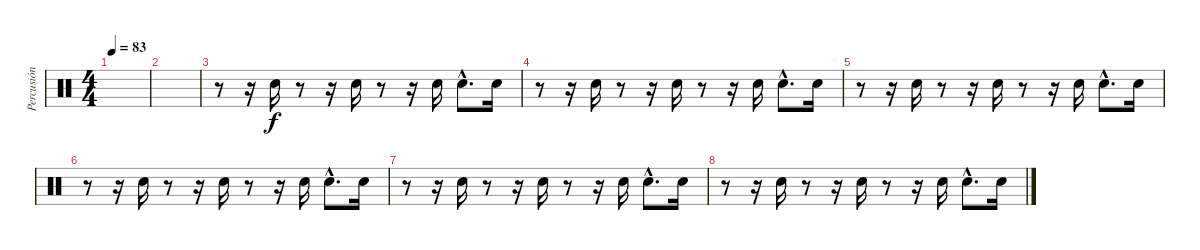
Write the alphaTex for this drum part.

\track ("Percusión" "Percusión") {instrument percussion}
\staff {score}
\articulation defaults
\ts (4 4)
\tempo 83
\clef neutral
\ks c
|
|
r.8 r.16 "Hand Clap (hit)".16 r.8 r.16 "Hand Clap (hit)".16 r.8 r.16 "Hand Clap (hit)".16 "Hand Clap (hit)"{hac}.8{d} "Hand Clap (hit)".16 |
r.8 r.16 "Hand Clap (hit)".16 r.8 r.16 "Hand Clap (hit)".16 r.8 r.16 "Hand Clap (hit)".16 "Hand Clap (hit)"{hac}.8{d} "Hand Clap (hit)".16 |
r.8 r.16 "Hand Clap (hit)".16 r.8 r.16 "Hand Clap (hit)".16 r.8 r.16 "Hand Clap (hit)".16 "Hand Clap (hit)"{hac}.8{d} "Hand Clap (hit)".16 |
r.8 r.16 "Hand Clap (hit)".16 r.8 r.16 "Hand Clap (hit)".16 r.8 r.16 "Hand Clap (hit)".16 "Hand Clap (hit)"{hac}.8{d} "Hand Clap (hit)".16 |
r.8 r.16 "Hand Clap (hit)".16 r.8 r.16 "Hand Clap (hit)".16 r.8 r.16 "Hand Clap (hit)".16 "Hand Clap (hit)"{hac}.8{d} "Hand Clap (hit)".16 |
r.8 r.16 "Hand Clap (hit)".16 r.8 r.16 "Hand Clap (hit)".16 r.8 r.16 "Hand Clap (hit)".16 "Hand Clap (hit)"{hac}.8{d} "Hand Clap (hit)".16
